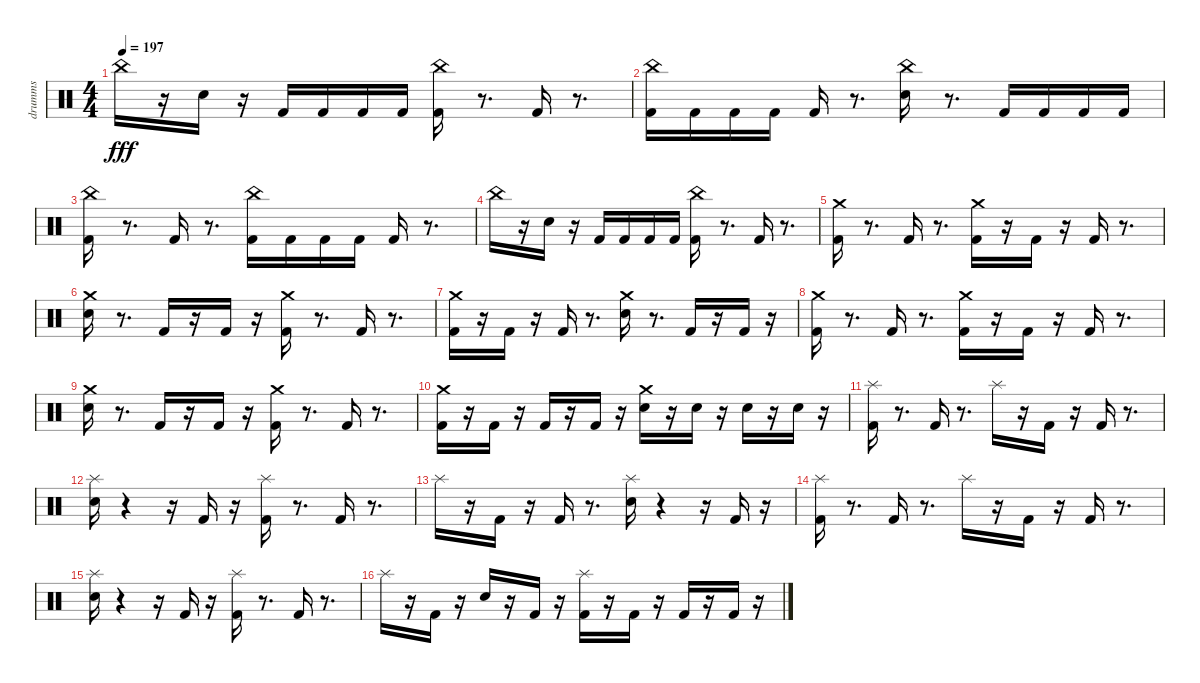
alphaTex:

\track ("drumms" "drumms") {instrument percussion}
\staff {score}
\articulation defaults
\ts (4 4)
\tempo 197
\clef neutral
\ks c "China (hit)".16{dy fff}
r.16 "Snare (hit) 2".16 r.16 "Kick (hit) 2".16 "Kick (hit) 2".16 "Kick (hit) 2".16 "Kick (hit) 2".16 ("Kick (hit) 2" "China (hit)").16 r.8{d} "Kick (hit) 2".16 r.8{d} |
("Kick (hit) 2" "China (hit)").16 "Kick (hit) 2".16 "Kick (hit) 2".16 "Kick (hit) 2".16 "Kick (hit) 2".16 r.8{d} ("Snare (hit) 2" "China (hit)").16 r.8{d} "Kick (hit) 2".16 "Kick (hit) 2".16 "Kick (hit) 2".16 "Kick (hit) 2".16 |
("Kick (hit) 2" "China (hit)").16 r.8{d} "Kick (hit) 2".16 r.8{d} ("Kick (hit) 2" "China (hit)").16 "Kick (hit) 2".16 "Kick (hit) 2".16 "Kick (hit) 2".16 "Kick (hit) 2".16 r.8{d} |
"China (hit)".16 r.16 "Snare (hit) 2".16 r.16 "Kick (hit) 2".16 "Kick (hit) 2".16 "Kick (hit) 2".16 "Kick (hit) 2".16 ("Kick (hit) 2" "China (hit)").16 r.8{d} "Kick (hit) 2".16 r.8{d} |
("Kick (hit) 2" "Crash medium (hit)").16 r.8{d} "Kick (hit) 2".16 r.8{d} ("Kick (hit) 2" "Crash medium (hit)").16 r.16 "Kick (hit) 2".16 r.16 "Kick (hit) 2".16 r.8{d} |
("Snare (hit) 2" "Crash medium (hit)").16 r.8{d} "Kick (hit) 2".16 r.16 "Kick (hit) 2".16 r.16 ("Kick (hit) 2" "Crash medium (hit)").16 r.8{d} "Kick (hit) 2".16 r.8{d} |
("Kick (hit) 2" "Crash medium (hit)").16 r.16 "Kick (hit) 2".16 r.16 "Kick (hit) 2".16 r.8{d} ("Snare (hit) 2" "Crash medium (hit)").16 r.8{d} "Kick (hit) 2".16 r.16 "Kick (hit) 2".16 r.16 |
("Kick (hit) 2" "Crash medium (hit)").16 r.8{d} "Kick (hit) 2".16 r.8{d} ("Kick (hit) 2" "Crash medium (hit)").16 r.16 "Kick (hit) 2".16 r.16 "Kick (hit) 2".16 r.8{d} |
("Snare (hit) 2" "Crash medium (hit)").16 r.8{d} "Kick (hit) 2".16 r.16 "Kick (hit) 2".16 r.16 ("Kick (hit) 2" "Crash medium (hit)").16 r.8{d} "Kick (hit) 2".16 r.8{d} |
("Kick (hit) 2" "Crash medium (hit)").16 r.16 "Kick (hit) 2".16 r.16 "Kick (hit) 2".16 r.16 "Kick (hit) 2".16 r.16 ("Snare (hit) 2" "Crash medium (hit)").16 r.16 "Snare (hit) 2".16 r.16 "Snare (hit) 2".16 r.16 "Snare (hit) 2".16 r.16 |
("Kick (hit) 2" "Splash (hit)").16 r.8{d} "Kick (hit) 2".16 r.8{d} "Splash (hit)".16 r.16 "Kick (hit) 2".16 r.16 "Kick (hit) 2".16 r.8{d} |
("Snare (hit) 2" "Splash (hit)").16 r.4 r.16 "Kick (hit) 2".16 r.16 ("Kick (hit) 2" "Splash (hit)").16 r.8{d} "Kick (hit) 2".16 r.8{d} |
"Splash (hit)".16 r.16 "Kick (hit) 2".16 r.16 "Kick (hit) 2".16 r.8{d} ("Snare (hit) 2" "Splash (hit)").16 r.4 r.16 "Kick (hit) 2".16 r.16 |
("Kick (hit) 2" "Splash (hit)").16 r.8{d} "Kick (hit) 2".16 r.8{d} "Splash (hit)".16 r.16 "Kick (hit) 2".16 r.16 "Kick (hit) 2".16 r.8{d} |
("Snare (hit) 2" "Splash (hit)").16 r.4 r.16 "Kick (hit) 2".16 r.16 ("Kick (hit) 2" "Splash (hit)").16 r.8{d} "Kick (hit) 2".16 r.8{d} |
"Splash (hit)".16 r.16 "Kick (hit) 2".16 r.16 "Snare (hit) 2".16 r.16 "Kick (hit) 2".16 r.16 ("Kick (hit) 2" "Splash (hit)").16 r.16 "Kick (hit) 2".16 r.16 "Kick (hit) 2".16 r.16 "Kick (hit) 2".16 r.16
